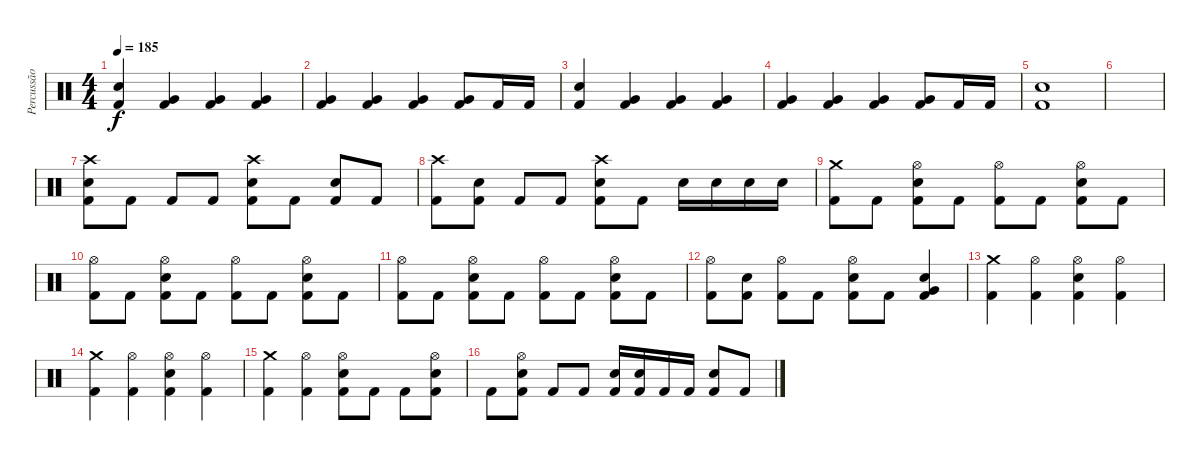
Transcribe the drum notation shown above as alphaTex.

\track ("Percussão" "Percussão") {instrument percussion}
\staff {score}
\articulation defaults
\ts (4 4)
\tempo 185
\clef neutral
\ks c
("Snare (hit) 2" "Kick (hit) 2").4{dy f} ("Very Low Tom (hit)" "Kick (hit) 2").4 ("Very Low Tom (hit)" "Kick (hit) 2").4 ("Very Low Tom (hit)" "Kick (hit) 2").4 |
("Very Low Tom (hit)" "Kick (hit) 2").4 ("Very Low Tom (hit)" "Kick (hit) 2").4 ("Very Low Tom (hit)" "Kick (hit) 2").4 ("Very Low Tom (hit)" "Kick (hit) 2").8 "Kick (hit) 2".16 "Kick (hit) 2".16 |
("Snare (hit) 2" "Kick (hit) 2").4 ("Very Low Tom (hit)" "Kick (hit) 2").4 ("Very Low Tom (hit)" "Kick (hit) 2").4 ("Very Low Tom (hit)" "Kick (hit) 2").4 |
("Very Low Tom (hit)" "Kick (hit) 2").4 ("Very Low Tom (hit)" "Kick (hit) 2").4 ("Very Low Tom (hit)" "Kick (hit) 2").4 ("Very Low Tom (hit)" "Kick (hit) 2").8 "Kick (hit) 2".16 "Kick (hit) 2".16 |
("Snare (hit) 2" "Kick (hit) 2").1 |
|
("Crash high (hit)" "Snare (hit) 2" "Kick (hit) 2").8 "Kick (hit) 2".8 "Kick (hit) 2".8 "Kick (hit) 2".8 ("Crash high (hit)" "Snare (hit) 2" "Kick (hit) 2").8 "Kick (hit) 2".8 ("Snare (hit) 2" "Kick (hit) 2").8 "Kick (hit) 2".8 |
("Crash high (hit)" "Kick (hit) 2").8 ("Snare (hit) 2" "Kick (hit) 2").8 "Kick (hit) 2".8 "Kick (hit) 2".8 ("Crash high (hit)" "Snare (hit) 2" "Kick (hit) 2").8 "Kick (hit) 2".8 "Snare (hit) 2".16 "Snare (hit) 2".16 "Snare (hit) 2".16 "Snare (hit) 2".16 |
("Crash medium (hit)" "Kick (hit) 2").8 "Kick (hit) 2".8 ("Hi-Hat (open)" "Snare (hit) 2" "Kick (hit) 2").8 "Kick (hit) 2".8 ("Hi-Hat (open)" "Kick (hit) 2").8 "Kick (hit) 2".8 ("Hi-Hat (open)" "Snare (hit) 2" "Kick (hit) 2").8 "Kick (hit) 2".8 |
("Hi-Hat (open)" "Kick (hit) 2").8 "Kick (hit) 2".8 ("Hi-Hat (open)" "Snare (hit) 2" "Kick (hit) 2").8 "Kick (hit) 2".8 ("Hi-Hat (open)" "Kick (hit) 2").8 "Kick (hit) 2".8 ("Hi-Hat (open)" "Snare (hit) 2" "Kick (hit) 2").8 "Kick (hit) 2".8 |
("Hi-Hat (open)" "Kick (hit) 2").8 "Kick (hit) 2".8 ("Hi-Hat (open)" "Snare (hit) 2" "Kick (hit) 2").8 "Kick (hit) 2".8 ("Hi-Hat (open)" "Kick (hit) 2").8 "Kick (hit) 2".8 ("Hi-Hat (open)" "Snare (hit) 2" "Kick (hit) 2").8 "Kick (hit) 2".8 |
("Hi-Hat (open)" "Kick (hit) 2").8 ("Snare (hit) 2" "Kick (hit) 2").8 ("Hi-Hat (open)" "Kick (hit) 2").8 "Kick (hit) 2".8 ("Hi-Hat (open)" "Snare (hit) 2" "Kick (hit) 2").8 "Kick (hit) 2".8 ("Very Low Tom (hit)" "Snare (hit) 2" "Kick (hit) 2").4 |
("Crash medium (hit)" "Kick (hit) 2").4 ("Hi-Hat (open)" "Kick (hit) 2").4 ("Hi-Hat (open)" "Snare (hit) 2" "Kick (hit) 2").4 ("Hi-Hat (open)" "Kick (hit) 2").4 |
("Crash medium (hit)" "Kick (hit) 2").4 ("Hi-Hat (open)" "Kick (hit) 2").4 ("Hi-Hat (open)" "Snare (hit) 2" "Kick (hit) 2").4 ("Hi-Hat (open)" "Kick (hit) 2").4 |
("Crash medium (hit)" "Kick (hit) 2").4 ("Hi-Hat (open)" "Kick (hit) 2").4 ("Hi-Hat (open)" "Snare (hit) 2" "Kick (hit) 2").8 "Kick (hit) 2".8 "Kick (hit) 2".8 ("Hi-Hat (open)" "Snare (hit) 2" "Kick (hit) 2").8 |
"Kick (hit) 2".8 ("Hi-Hat (open)" "Snare (hit) 2" "Kick (hit) 2").8 "Kick (hit) 2".8 "Kick (hit) 2".8 ("Snare (hit) 2" "Kick (hit) 2").16 ("Snare (hit) 2" "Kick (hit) 2").16 "Kick (hit) 2".16 "Kick (hit) 2".16 ("Snare (hit) 2" "Kick (hit) 2").8 "Kick (hit) 2".8
